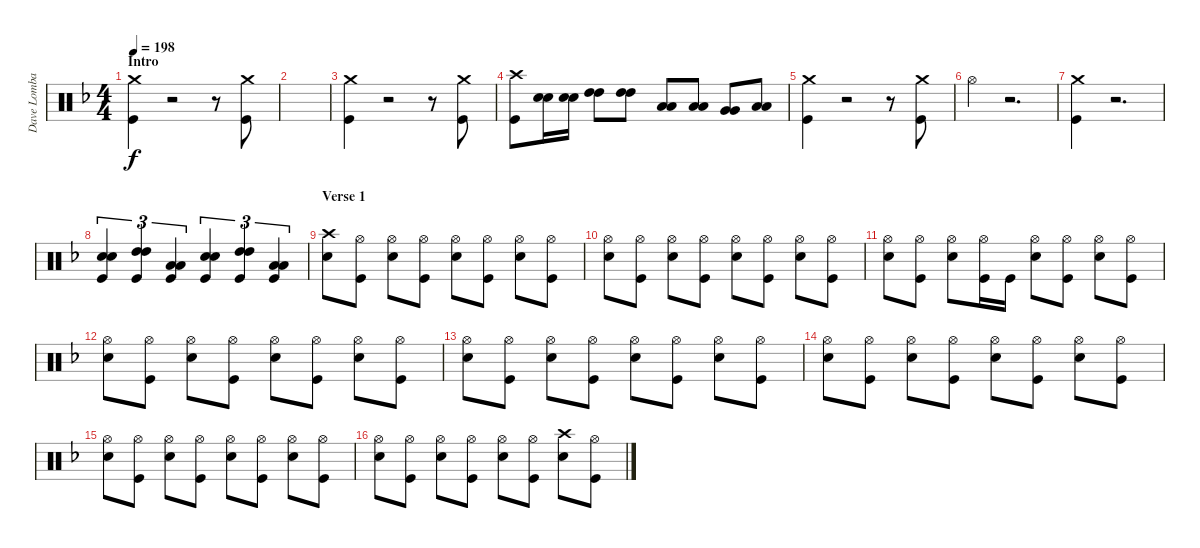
\track ("Dave Lombardo - Drums" "Dave Lomba") {instrument percussion}
\staff {score}
\articulation defaults
\ts (4 4)
\section ("" "Intro")
\tempo 198
\clef neutral
\ks f
("Crash medium (hit)" "Kick (hit)").4{dy f} r.2 r.8 ("Crash medium (hit)" "Kick (hit)").8 |
|
("Crash medium (hit)" "Kick (hit)").4 r.2 r.8 ("Crash medium (hit)" "Kick (hit)").8 |
("Crash high (hit)" "Kick (hit)").8 ("Snare (hit) 2" "Snare (hit) 2").16 ("Snare (hit) 2" "Snare (hit) 2").16 ("High Tom (hit)" "High Tom (hit)").8 ("High Tom (hit)" "High Tom (hit)").8 ("Low Tom (hit)" "Low Tom (hit)").8 ("Low Tom (hit)" "Low Tom (hit)").8 ("Very Low Tom (hit)" "Very Low Tom (hit)").8 ("Low Floor Tom (hit)" "Low Floor Tom (hit)").8 |
("Crash medium (hit)" "Kick (hit)").4 r.2 r.8 ("Crash medium (hit)" "Kick (hit)").8 |
"Hi-Hat (open)".4 r.2{d} |
("Crash medium (hit)" "Kick (hit)").4 r.2{d} |
("Snare (hit) 2" "Snare (hit) 2" "Kick (hit)").4{tu (3 2)} ("High Tom (hit)" "High Tom (hit)" "Kick (hit)").4{tu (3 2)} ("Low Tom (hit)" "Low Tom (hit)" "Kick (hit)").4{tu (3 2)} ("Snare (hit) 2" "Snare (hit) 2" "Kick (hit)").4{tu (3 2)} ("High Tom (hit)" "High Tom (hit)" "Kick (hit)").4{tu (3 2)} ("Low Tom (hit)" "Low Tom (hit)" "Kick (hit)").4{tu (3 2)} |
\section ("" "Verse 1")
("Crash high (hit)" "Snare (hit) 2").8 ("Hi-Hat (open)" "Kick (hit)").8 ("Hi-Hat (open)" "Snare (hit) 2").8 ("Hi-Hat (open)" "Kick (hit)").8 ("Hi-Hat (open)" "Snare (hit) 2").8 ("Hi-Hat (open)" "Kick (hit)").8 ("Hi-Hat (open)" "Snare (hit) 2").8 ("Hi-Hat (open)" "Kick (hit)").8 |
("Hi-Hat (open)" "Snare (hit) 2").8 ("Hi-Hat (open)" "Kick (hit)").8 ("Hi-Hat (open)" "Snare (hit) 2").8 ("Hi-Hat (open)" "Kick (hit)").8 ("Hi-Hat (open)" "Snare (hit) 2").8 ("Hi-Hat (open)" "Kick (hit)").8 ("Hi-Hat (open)" "Snare (hit) 2").8 ("Hi-Hat (open)" "Kick (hit)").8 |
("Hi-Hat (open)" "Snare (hit) 2").8 ("Hi-Hat (open)" "Kick (hit)").8 ("Hi-Hat (open)" "Snare (hit) 2").8 ("Hi-Hat (open)" "Kick (hit)").16 "Kick (hit)".16 ("Hi-Hat (open)" "Snare (hit) 2").8 ("Hi-Hat (open)" "Kick (hit)").8 ("Hi-Hat (open)" "Snare (hit) 2").8 ("Hi-Hat (open)" "Kick (hit)").8 |
("Hi-Hat (open)" "Snare (hit) 2").8 ("Hi-Hat (open)" "Kick (hit)").8 ("Hi-Hat (open)" "Snare (hit) 2").8 ("Hi-Hat (open)" "Kick (hit)").8 ("Hi-Hat (open)" "Snare (hit) 2").8 ("Hi-Hat (open)" "Kick (hit)").8 ("Hi-Hat (open)" "Snare (hit) 2").8 ("Hi-Hat (open)" "Kick (hit)").8 |
("Hi-Hat (open)" "Snare (hit) 2").8 ("Hi-Hat (open)" "Kick (hit)").8 ("Hi-Hat (open)" "Snare (hit) 2").8 ("Hi-Hat (open)" "Kick (hit)").8 ("Hi-Hat (open)" "Snare (hit) 2").8 ("Hi-Hat (open)" "Kick (hit)").8 ("Hi-Hat (open)" "Snare (hit) 2").8 ("Hi-Hat (open)" "Kick (hit)").8 |
("Hi-Hat (open)" "Snare (hit) 2").8 ("Hi-Hat (open)" "Kick (hit)").8 ("Hi-Hat (open)" "Snare (hit) 2").8 ("Hi-Hat (open)" "Kick (hit)").8 ("Hi-Hat (open)" "Snare (hit) 2").8 ("Hi-Hat (open)" "Kick (hit)").8 ("Hi-Hat (open)" "Snare (hit) 2").8 ("Hi-Hat (open)" "Kick (hit)").8 |
("Hi-Hat (open)" "Snare (hit) 2").8 ("Hi-Hat (open)" "Kick (hit)").8 ("Hi-Hat (open)" "Snare (hit) 2").8 ("Hi-Hat (open)" "Kick (hit)").8 ("Hi-Hat (open)" "Snare (hit) 2").8 ("Hi-Hat (open)" "Kick (hit)").8 ("Hi-Hat (open)" "Snare (hit) 2").8 ("Hi-Hat (open)" "Kick (hit)").8 |
("Hi-Hat (open)" "Snare (hit) 2").8 ("Hi-Hat (open)" "Kick (hit)").8 ("Hi-Hat (open)" "Snare (hit) 2").8 ("Hi-Hat (open)" "Kick (hit)").8 ("Hi-Hat (open)" "Snare (hit) 2").8 ("Hi-Hat (open)" "Kick (hit)").8 ("Crash high (hit)" "Snare (hit) 2").8 ("Hi-Hat (open)" "Kick (hit)").8
